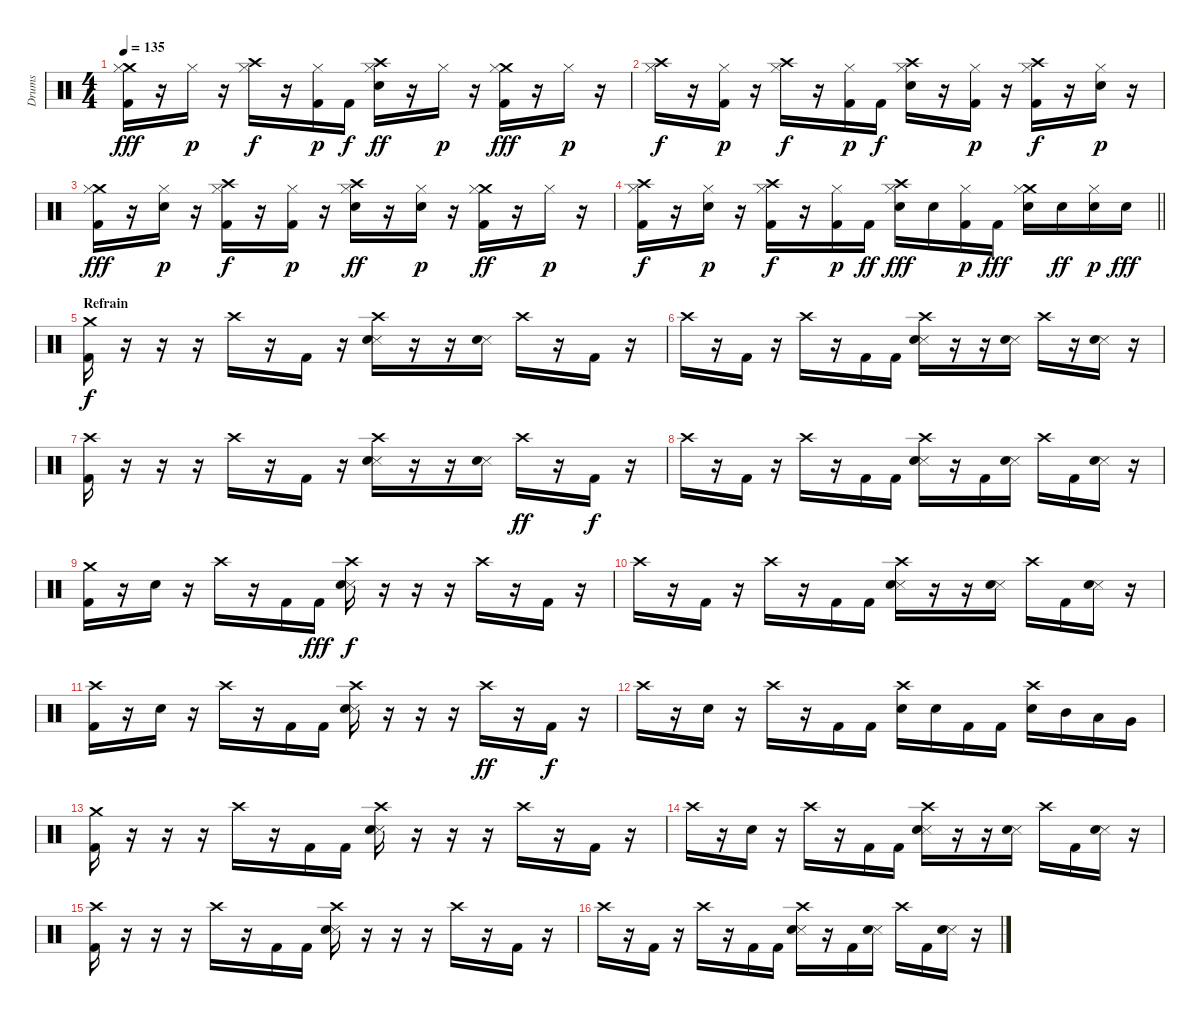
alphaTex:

\track ("Drums" "Drums") {instrument percussion}
\staff {score}
\articulation defaults
\ts (4 4)
\tempo 135
\clef neutral
\ks c
("Crash medium (hit)" "Kick (hit) 2" "Hi-Hat (closed)").16{dy fff} r.16 "Hi-Hat (closed)".16{dy p} r.16 ("Crash high (hit)" "Hi-Hat (closed)").16{dy f} r.16 ("Kick (hit) 2" "Hi-Hat (closed)").16{dy p} "Kick (hit) 2".16{dy f} ("Crash high (hit)" "Electric Snare (hit)" "Hi-Hat (closed)").16{dy ff} r.16 "Hi-Hat (closed)".16{dy p} r.16 ("Crash medium (hit)" "Kick (hit) 2" "Hi-Hat (closed)").16{dy fff} r.16 "Hi-Hat (closed)".16{dy p} r.16 |
("Crash high (hit)" "Hi-Hat (closed)").16{dy f} r.16 ("Kick (hit) 2" "Hi-Hat (closed)").16{dy p} r.16 ("Crash high (hit)" "Hi-Hat (closed)").16{dy f} r.16 ("Kick (hit) 2" "Hi-Hat (closed)").16{dy p} "Kick (hit) 2".16{dy f} ("Crash high (hit)" "Electric Snare (hit)" "Hi-Hat (closed)").16 r.16 ("Kick (hit) 2" "Hi-Hat (closed)").16{dy p} r.16 ("Crash high (hit)" "Kick (hit) 2" "Hi-Hat (closed)").16{dy f} r.16 ("Electric Snare (hit)" "Hi-Hat (closed)").16{dy p} r.16 |
("Crash medium (hit)" "Kick (hit) 2" "Hi-Hat (closed)").16{dy fff} r.16 ("Electric Snare (hit)" "Hi-Hat (closed)").16{dy p} r.16 ("Crash high (hit)" "Kick (hit) 2" "Hi-Hat (closed)").16{dy f} r.16 ("Kick (hit) 2" "Hi-Hat (closed)").16{dy p} r.16 ("Crash high (hit)" "Electric Snare (hit)" "Hi-Hat (closed)").16{dy ff} r.16 ("Electric Snare (hit)" "Hi-Hat (closed)").16{dy p} r.16 ("Crash medium (hit)" "Kick (hit) 2" "Hi-Hat (closed)").16{dy ff} r.16 "Hi-Hat (closed)".16{dy p} r.16 |
\barLineRight lightlight
("Crash high (hit)" "Kick (hit) 2" "Hi-Hat (closed)").16{dy f} r.16 ("Electric Snare (hit)" "Hi-Hat (closed)").16{dy p} r.16 ("Crash high (hit)" "Kick (hit) 2" "Hi-Hat (closed)").16{dy f} r.16 ("Kick (hit) 2" "Hi-Hat (closed)").16{dy p} "Kick (hit) 2".16{dy ff} ("Crash high (hit)" "Electric Snare (hit)" "Hi-Hat (closed)").16{dy fff} "Electric Snare (hit)".16 ("Kick (hit) 2" "Hi-Hat (closed)").16{dy p} "Kick (hit) 2".16{dy fff} ("Crash medium (hit)" "Electric Snare (hit)" "Hi-Hat (closed)").16 "Electric Snare (hit)".16{dy ff} ("Electric Snare (hit)" "Hi-Hat (closed)").16{dy p} "Electric Snare (hit)".16{dy fff} |
\section ("" "Refrain")
("Crash medium (hit)" "Kick (hit) 2").16{dy f} r.16 r.16 r.16 "Crash high (hit)".16 r.16 "Kick (hit) 2".16 r.16 ("Crash high (hit)" "Snare (side stick) 3" "Electric Snare (hit)").16 r.16 r.16 ("Snare (side stick) 3" "Electric Snare (hit)").16 "Crash high (hit)".16 r.16 "Kick (hit) 2".16 r.16 |
"Crash high (hit)".16 r.16 "Kick (hit) 2".16 r.16 "Crash high (hit)".16 r.16 "Kick (hit) 2".16 "Kick (hit) 2".16 ("Crash high (hit)" "Snare (side stick) 3" "Electric Snare (hit)").16 r.16 r.16 ("Snare (side stick) 3" "Electric Snare (hit)").16 "Crash high (hit)".16 r.16 ("Snare (side stick) 3" "Electric Snare (hit)").16 r.16 |
("Kick (hit) 2" "Crash high (hit)").16 r.16 r.16 r.16 "Crash high (hit)".16 r.16 "Kick (hit) 2".16 r.16 ("Snare (side stick) 3" "Electric Snare (hit)" "Crash high (hit)").16 r.16 r.16 ("Snare (side stick) 3" "Electric Snare (hit)").16 "Crash high (hit)".16{dy ff} r.16 "Kick (hit) 2".16{dy f} r.16 |
"Crash high (hit)".16 r.16 "Kick (hit) 2".16 r.16 "Crash high (hit)".16 r.16 "Kick (hit) 2".16 "Kick (hit) 2".16 ("Snare (side stick) 3" "Electric Snare (hit)" "Crash high (hit)").16 r.16 "Kick (hit) 2".16 ("Snare (side stick) 3" "Electric Snare (hit)").16 "Crash high (hit)".16 "Kick (hit) 2".16 ("Snare (side stick) 3" "Electric Snare (hit)").16 r.16 |
("Crash medium (hit)" "Kick (hit) 2").16 r.16 "Electric Snare (hit)".16 r.16 "Crash high (hit)".16 r.16 "Kick (hit) 2".16 "Kick (hit) 2".16{dy fff} ("Crash high (hit)" "Snare (side stick) 3" "Electric Snare (hit)").16{dy f} r.16 r.16 r.16 "Crash high (hit)".16 r.16 "Kick (hit) 2".16 r.16 |
"Crash high (hit)".16 r.16 "Kick (hit) 2".16 r.16 "Crash high (hit)".16 r.16 "Kick (hit) 2".16 "Kick (hit) 2".16 ("Crash high (hit)" "Snare (side stick) 3" "Electric Snare (hit)").16 r.16 r.16 ("Snare (side stick) 3" "Electric Snare (hit)").16 "Crash high (hit)".16 "Kick (hit) 2".16 ("Snare (side stick) 3" "Electric Snare (hit)").16 r.16 |
("Kick (hit) 2" "Crash high (hit)").16 r.16 "Electric Snare (hit)".16 r.16 "Crash high (hit)".16 r.16 "Kick (hit) 2".16 "Kick (hit) 2".16 ("Snare (side stick) 3" "Electric Snare (hit)" "Crash high (hit)").16 r.16 r.16 r.16 "Crash high (hit)".16{dy ff} r.16 "Kick (hit) 2".16{dy f} r.16 |
"Crash high (hit)".16 r.16 "Electric Snare (hit)".16 r.16 "Crash high (hit)".16 r.16 "Kick (hit) 2".16 "Kick (hit) 2".16 ("Electric Snare (hit)" "Crash high (hit)").16 "Electric Snare (hit)".16 "Kick (hit) 2".16 "Kick (hit) 2".16 ("Electric Snare (hit)" "Crash high (hit)").16 "Mid Tom (hit)".16 "Low Tom (hit)".16 "Very Low Tom (hit)".16 |
("Crash medium (hit)" "Kick (hit) 2").16 r.16 r.16 r.16 "Crash high (hit)".16 r.16 "Kick (hit) 2".16 "Kick (hit) 2".16 ("Crash high (hit)" "Snare (side stick) 3" "Electric Snare (hit)").16 r.16 r.16 r.16 "Crash high (hit)".16 r.16 "Kick (hit) 2".16 r.16 |
"Crash high (hit)".16 r.16 "Electric Snare (hit)".16 r.16 "Crash high (hit)".16 r.16 "Kick (hit) 2".16 "Kick (hit) 2".16 ("Crash high (hit)" "Snare (side stick) 3" "Electric Snare (hit)").16 r.16 r.16 ("Snare (side stick) 3" "Electric Snare (hit)").16 "Crash high (hit)".16 "Kick (hit) 2".16 ("Snare (side stick) 3" "Electric Snare (hit)").16 r.16 |
("Kick (hit) 2" "Crash high (hit)").16 r.16 r.16 r.16 "Crash high (hit)".16 r.16 "Kick (hit) 2".16 "Kick (hit) 2".16 ("Snare (side stick) 3" "Electric Snare (hit)" "Crash high (hit)").16 r.16 r.16 r.16 "Crash high (hit)".16 r.16 "Kick (hit) 2".16 r.16 |
"Crash high (hit)".16 r.16 "Kick (hit) 2".16 r.16 "Crash high (hit)".16 r.16 "Kick (hit) 2".16 "Kick (hit) 2".16 ("Snare (side stick) 3" "Electric Snare (hit)" "Crash high (hit)").16 r.16 "Kick (hit) 2".16 ("Snare (side stick) 3" "Electric Snare (hit)").16 "Crash high (hit)".16 "Kick (hit) 2".16 ("Snare (side stick) 3" "Electric Snare (hit)").16 r.16
